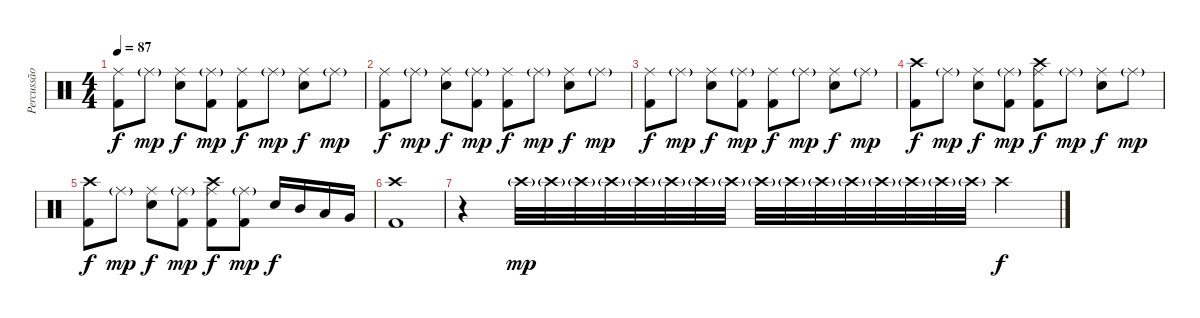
\track ("Percussão" "Percussão") {instrument percussion}
\staff {score}
\articulation defaults
\ts (4 4)
\tempo 87
\clef neutral
\ks c
("Ride (middle)" "Kick (hit) 2").8{dy f} "Ride (middle)"{g}.8{dy mp} ("Ride (middle)" "Snare (hit) 2").8{dy f} ("Ride (middle)"{g} "Kick (hit) 2").8{dy mp} ("Ride (middle)" "Kick (hit) 2").8{dy f} "Ride (middle)"{g}.8{dy mp} ("Ride (middle)" "Snare (hit) 2").8{dy f} "Ride (middle)"{g}.8{dy mp} |
("Ride (middle)" "Kick (hit) 2").8{dy f} "Ride (middle)"{g}.8{dy mp} ("Ride (middle)" "Snare (hit) 2").8{dy f} ("Ride (middle)"{g} "Kick (hit) 2").8{dy mp} ("Ride (middle)" "Kick (hit) 2").8{dy f} "Ride (middle)"{g}.8{dy mp} ("Ride (middle)" "Snare (hit) 2").8{dy f} "Ride (middle)"{g}.8{dy mp} |
("Ride (middle)" "Kick (hit) 2").8{dy f} "Ride (middle)"{g}.8{dy mp} ("Ride (middle)" "Snare (hit) 2").8{dy f} ("Ride (middle)"{g} "Kick (hit) 2").8{dy mp} ("Ride (middle)" "Kick (hit) 2").8{dy f} "Ride (middle)"{g}.8{dy mp} ("Ride (middle)" "Snare (hit) 2").8{dy f} "Ride (middle)"{g}.8{dy mp} |
("Crash high (hit)" "Kick (hit) 2").8{dy f} "Ride (middle)"{g}.8{dy mp} ("Ride (middle)" "Snare (hit) 2").8{dy f} ("Ride (middle)"{g} "Kick (hit) 2").8{dy mp} ("Crash high (hit)" "Ride (middle)" "Kick (hit) 2").8{dy f} "Ride (middle)"{g}.8{dy mp} ("Ride (middle)" "Snare (hit) 2").8{dy f} "Ride (middle)"{g}.8{dy mp} |
("Crash high (hit)" "Kick (hit) 2").8{dy f} "Ride (middle)"{g}.8{dy mp} ("Ride (middle)" "Snare (hit) 2").8{dy f} ("Ride (middle)"{g} "Kick (hit) 2").8{dy mp} ("Crash high (hit)" "Ride (middle)" "Kick (hit) 2").8{dy f} ("Ride (middle)"{g} "Kick (hit) 2").8{dy mp} "Snare (hit) 2".16{dy f} "Mid Tom (hit)".16 "Low Tom (hit)".16 "Very Low Tom (hit)".16 |
("Crash high (hit)" "Kick (hit) 2").1 |
r.4 "Crash high (hit)"{g}.32{dy mp} "Crash high (hit)"{g}.32 "Crash high (hit)"{g}.32 "Crash high (hit)"{g}.32 "Crash high (hit)"{g}.32 "Crash high (hit)"{g}.32 "Crash high (hit)"{g}.32 "Crash high (hit)"{g}.32 "Crash high (hit)"{g}.32 "Crash high (hit)"{g}.32 "Crash high (hit)"{g}.32 "Crash high (hit)"{g}.32 "Crash high (hit)"{g}.32 "Crash high (hit)"{g}.32 "Crash high (hit)"{g}.32 "Crash high (hit)"{g}.32 "Crash high (hit)".4{dy f}
